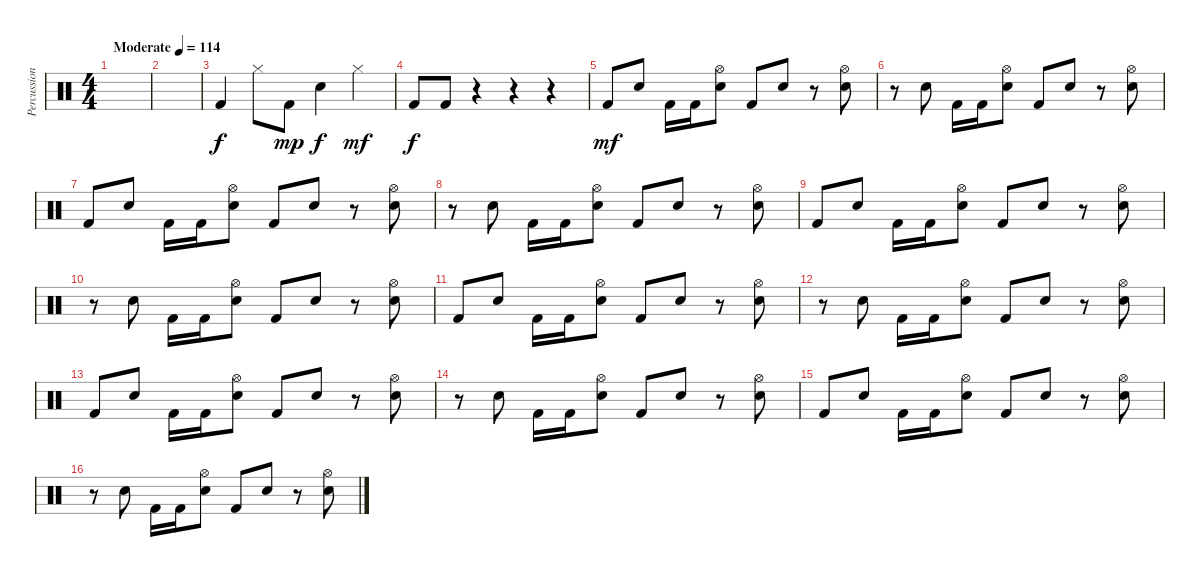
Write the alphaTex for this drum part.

\track ("Percussion" "Percussion") {instrument percussion}
\staff {score}
\articulation defaults
\ts (4 4)
\tempo (114 "Moderate")
\clef neutral
\ks c
|
|
"Kick (hit) 2".4 "Hi-Hat (closed)".8 "Kick (hit) 2".8{dy mp} "Snare (hit) 2".4{dy f} "Hi-Hat (closed)".4{dy mf} |
"Kick (hit) 2".8{dy f} "Kick (hit) 2".8 r.4 r.4 r.4 |
"Kick (hit) 2".8{dy mf} "Snare (hit) 2".8 "Kick (hit) 2".16 "Kick (hit) 2".16 ("Hi-Hat (open)" "Snare (hit) 2").8 "Kick (hit) 2".8 "Snare (hit) 2".8 r.8 ("Hi-Hat (open)" "Snare (hit) 2").8 |
r.8 "Snare (hit) 2".8 "Kick (hit) 2".16 "Kick (hit) 2".16 ("Hi-Hat (open)" "Snare (hit) 2").8 "Kick (hit) 2".8 "Snare (hit) 2".8 r.8 ("Hi-Hat (open)" "Snare (hit) 2").8 |
"Kick (hit) 2".8 "Snare (hit) 2".8 "Kick (hit) 2".16 "Kick (hit) 2".16 ("Hi-Hat (open)" "Snare (hit) 2").8 "Kick (hit) 2".8 "Snare (hit) 2".8 r.8 ("Hi-Hat (open)" "Snare (hit) 2").8 |
r.8 "Snare (hit) 2".8 "Kick (hit) 2".16 "Kick (hit) 2".16 ("Hi-Hat (open)" "Snare (hit) 2").8 "Kick (hit) 2".8 "Snare (hit) 2".8 r.8 ("Hi-Hat (open)" "Snare (hit) 2").8 |
"Kick (hit) 2".8 "Snare (hit) 2".8 "Kick (hit) 2".16 "Kick (hit) 2".16 ("Hi-Hat (open)" "Snare (hit) 2").8 "Kick (hit) 2".8 "Snare (hit) 2".8 r.8 ("Hi-Hat (open)" "Snare (hit) 2").8 |
r.8 "Snare (hit) 2".8 "Kick (hit) 2".16 "Kick (hit) 2".16 ("Hi-Hat (open)" "Snare (hit) 2").8 "Kick (hit) 2".8 "Snare (hit) 2".8 r.8 ("Hi-Hat (open)" "Snare (hit) 2").8 |
"Kick (hit) 2".8 "Snare (hit) 2".8 "Kick (hit) 2".16 "Kick (hit) 2".16 ("Hi-Hat (open)" "Snare (hit) 2").8 "Kick (hit) 2".8 "Snare (hit) 2".8 r.8 ("Hi-Hat (open)" "Snare (hit) 2").8 |
r.8 "Snare (hit) 2".8 "Kick (hit) 2".16 "Kick (hit) 2".16 ("Hi-Hat (open)" "Snare (hit) 2").8 "Kick (hit) 2".8 "Snare (hit) 2".8 r.8 ("Hi-Hat (open)" "Snare (hit) 2").8 |
"Kick (hit) 2".8 "Snare (hit) 2".8 "Kick (hit) 2".16 "Kick (hit) 2".16 ("Hi-Hat (open)" "Snare (hit) 2").8 "Kick (hit) 2".8 "Snare (hit) 2".8 r.8 ("Hi-Hat (open)" "Snare (hit) 2").8 |
r.8 "Snare (hit) 2".8 "Kick (hit) 2".16 "Kick (hit) 2".16 ("Hi-Hat (open)" "Snare (hit) 2").8 "Kick (hit) 2".8 "Snare (hit) 2".8 r.8 ("Hi-Hat (open)" "Snare (hit) 2").8 |
"Kick (hit) 2".8 "Snare (hit) 2".8 "Kick (hit) 2".16 "Kick (hit) 2".16 ("Hi-Hat (open)" "Snare (hit) 2").8 "Kick (hit) 2".8 "Snare (hit) 2".8 r.8 ("Hi-Hat (open)" "Snare (hit) 2").8 |
r.8 "Snare (hit) 2".8 "Kick (hit) 2".16 "Kick (hit) 2".16 ("Hi-Hat (open)" "Snare (hit) 2").8 "Kick (hit) 2".8 "Snare (hit) 2".8 r.8 ("Hi-Hat (open)" "Snare (hit) 2").8
